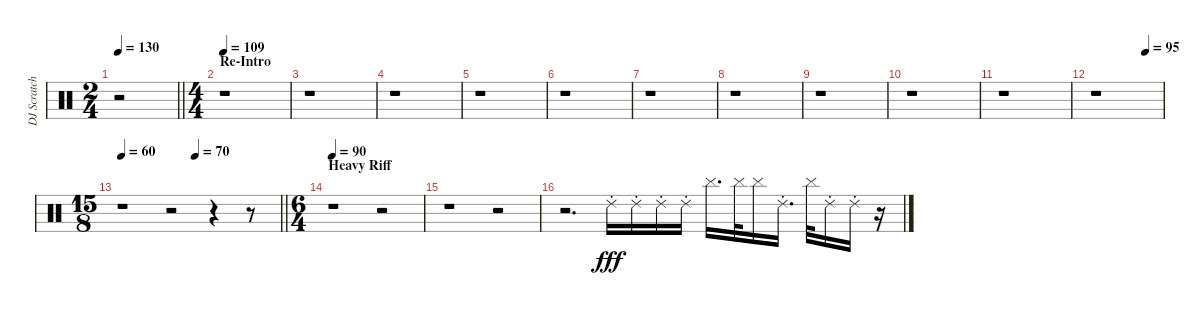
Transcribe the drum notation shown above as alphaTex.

\track ("DJ Scratches/ Percussion" "DJ Scratch") {instrument percussion}
\staff {score}
\articulation defaults
\ts (2 4)
\tempo 130
\clef neutral
\barLineRight lightlight
\ks c
r.2{dy fff} |
\ts (4 4)
\section ("" "Re-Intro")
\tempo 109
r.1 |
r.1 |
r.1 |
r.1 |
r.1 |
r.1 |
r.1 |
r.1 |
r.1 |
r.1 |
\tempo (95 0.75)
r.1 |
\ts (15 8)
\tempo 60
\tempo (70 0.4666666666666667)
\barLineRight lightlight
r.1 r.2 r.4 r.8 |
\ts (6 4)
\section ("" "Heavy Riff")
\tempo 90
r.1 r.2 |
r.1 r.2 |
r.2{d} "Ride (choke) 2".16 "Ride (choke) 2".16 "Ride (choke) 2".16 "Ride (choke) 2".16 "Cymbal (hit)".16{d} "Cymbal (hit)".32 "Cymbal (hit)".16 "Ride (choke) 2".16{d} "Cymbal (hit)".32 "Ride (choke) 2".16 "Ride (choke) 2".16 r.16
